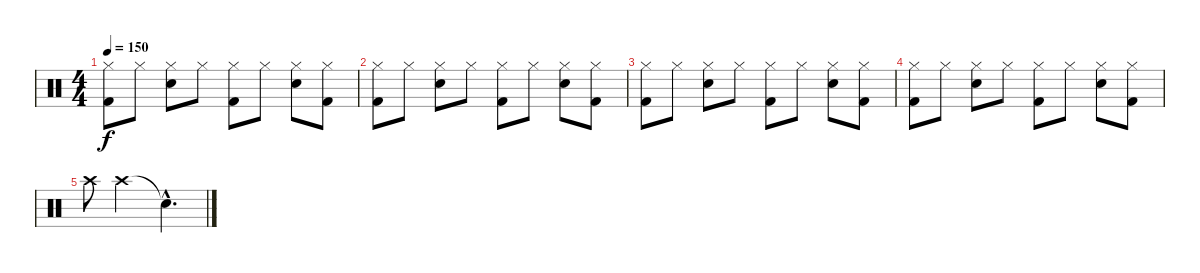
\track "" {instrument percussion}
\staff {score}
\articulation defaults
\ts (4 4)
\tempo 150
\clef neutral
\ks c
("Hi-Hat (closed)" "Kick (hit) 2").8{dy f} "Hi-Hat (closed)".8 ("Hi-Hat (closed)" "Snare (hit) 2").8 "Hi-Hat (closed)".8 ("Hi-Hat (closed)" "Kick (hit) 2").8 "Hi-Hat (closed)".8 ("Hi-Hat (closed)" "Snare (hit) 2").8 ("Hi-Hat (closed)" "Kick (hit) 2").8 |
("Hi-Hat (closed)" "Kick (hit) 2").8 "Hi-Hat (closed)".8 ("Hi-Hat (closed)" "Snare (hit) 2").8 "Hi-Hat (closed)".8 ("Hi-Hat (closed)" "Kick (hit) 2").8 "Hi-Hat (closed)".8 ("Hi-Hat (closed)" "Snare (hit) 2").8 ("Hi-Hat (closed)" "Kick (hit) 2").8 |
("Hi-Hat (closed)" "Kick (hit) 2").8 "Hi-Hat (closed)".8 ("Hi-Hat (closed)" "Snare (hit) 2").8 "Hi-Hat (closed)".8 ("Hi-Hat (closed)" "Kick (hit) 2").8 "Hi-Hat (closed)".8 ("Hi-Hat (closed)" "Snare (hit) 2").8 ("Hi-Hat (closed)" "Kick (hit) 2").8 |
("Hi-Hat (closed)" "Kick (hit) 2").8 "Hi-Hat (closed)".8 ("Hi-Hat (closed)" "Snare (hit) 2").8 "Hi-Hat (closed)".8 ("Hi-Hat (closed)" "Kick (hit) 2").8 "Hi-Hat (closed)".8 ("Hi-Hat (closed)" "Snare (hit) 2").8 ("Hi-Hat (closed)" "Kick (hit) 2").8 |
"Crash high (hit)".8 "Crash high (hit)".2 "Snare (hit)"{hac t}.4{d}
